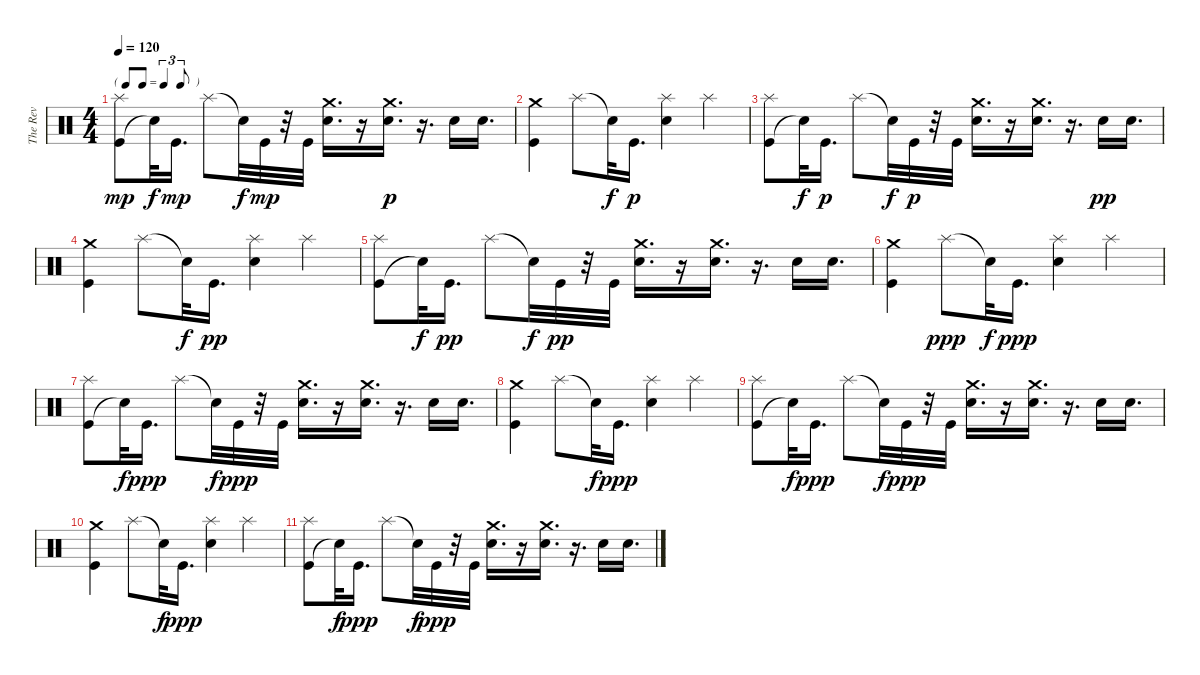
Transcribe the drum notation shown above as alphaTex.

\track ("The Rev" "The Rev") {instrument percussion}
\staff {score}
\articulation defaults
\ts (4 4)
\tf triplet8th
\tempo 120
\clef neutral
\ks c
("Kick (hit)" "Splash (hit)").8{dy mp} "Snare (hit)"{t}.32{dy f} "Kick (hit)".16{d dy mp} "Splash (hit)".8 "Snare (hit)"{t}.32{dy f} "Kick (hit)".32{dy mp} r.32 "Kick (hit)".32 ("Electric Snare (hit)" "Crash medium (hit)").16{d} r.16 ("Crash medium (hit)" "Electric Snare (hit)").16{d dy p} r.16{d} "Electric Snare (hit)".16 "Electric Snare (hit)".16{d} |
("Kick (hit)" "Crash medium (hit)").4 "Splash (hit)".8 "Snare (hit)"{t}.32{dy f} "Kick (hit)".16{d dy p} ("Electric Snare (hit)" "Splash (hit)").4 "Splash (hit)".4 |
("Kick (hit)" "Splash (hit)").8 "Snare (hit)"{t}.32{dy f} "Kick (hit)".16{d dy p} "Splash (hit)".8 "Snare (hit)"{t}.32{dy f} "Kick (hit)".32{dy p} r.32 "Kick (hit)".32 ("Electric Snare (hit)" "Crash medium (hit)").16{d} r.16 ("Crash medium (hit)" "Electric Snare (hit)").16{d} r.16{d} "Electric Snare (hit)".16{dy pp} "Electric Snare (hit)".16{d} |
("Kick (hit)" "Crash medium (hit)").4 "Splash (hit)".8 "Snare (hit)"{t}.32{dy f} "Kick (hit)".16{d dy pp} ("Electric Snare (hit)" "Splash (hit)").4 "Splash (hit)".4 |
("Kick (hit)" "Splash (hit)").8{volume 11} "Snare (hit)"{t}.32{dy f} "Kick (hit)".16{d dy pp} "Splash (hit)".8 "Snare (hit)"{t}.32{dy f} "Kick (hit)".32{dy pp} r.32 "Kick (hit)".32 ("Electric Snare (hit)" "Crash medium (hit)").16{d} r.16 ("Crash medium (hit)" "Electric Snare (hit)").16{d} r.16{d} "Electric Snare (hit)".16 "Electric Snare (hit)".16{d} |
("Kick (hit)" "Crash medium (hit)").4 "Splash (hit)".8{dy ppp} "Snare (hit)"{t}.32{dy f} "Kick (hit)".16{d dy ppp} ("Electric Snare (hit)" "Splash (hit)").4 "Splash (hit)".4 |
("Kick (hit)" "Splash (hit)").8{volume 5} "Snare (hit)"{t}.32{dy f} "Kick (hit)".16{d dy ppp} "Splash (hit)".8 "Snare (hit)"{t}.32{dy f} "Kick (hit)".32{dy ppp} r.32 "Kick (hit)".32 ("Electric Snare (hit)" "Crash medium (hit)").16{d} r.16 ("Crash medium (hit)" "Electric Snare (hit)").16{d} r.16{d} "Electric Snare (hit)".16 "Electric Snare (hit)".16{d} |
("Kick (hit)" "Crash medium (hit)").4 "Splash (hit)".8 "Snare (hit)"{t}.32{dy f} "Kick (hit)".16{d dy ppp} ("Electric Snare (hit)" "Splash (hit)").4 "Splash (hit)".4 |
("Kick (hit)" "Splash (hit)").8 "Snare (hit)"{t}.32{dy f} "Kick (hit)".16{d dy ppp} "Splash (hit)".8 "Snare (hit)"{t}.32{dy f} "Kick (hit)".32{dy ppp} r.32 "Kick (hit)".32 ("Electric Snare (hit)" "Crash medium (hit)").16{d} r.16 ("Crash medium (hit)" "Electric Snare (hit)").16{d} r.16{d} "Electric Snare (hit)".16 "Electric Snare (hit)".16{d} |
("Kick (hit)" "Crash medium (hit)").4 "Splash (hit)".8 "Snare (hit)"{t}.32{dy f} "Kick (hit)".16{d dy ppp} ("Electric Snare (hit)" "Splash (hit)").4 "Splash (hit)".4 |
("Kick (hit)" "Splash (hit)").8 "Snare (hit)"{t}.32{dy f} "Kick (hit)".16{d dy ppp} "Splash (hit)".8 "Snare (hit)"{t}.32{dy f} "Kick (hit)".32{dy ppp} r.32 "Kick (hit)".32 ("Electric Snare (hit)" "Crash medium (hit)").16{d} r.16 ("Crash medium (hit)" "Electric Snare (hit)").16{d} r.16{d} "Electric Snare (hit)".16 "Electric Snare (hit)".16{d}
